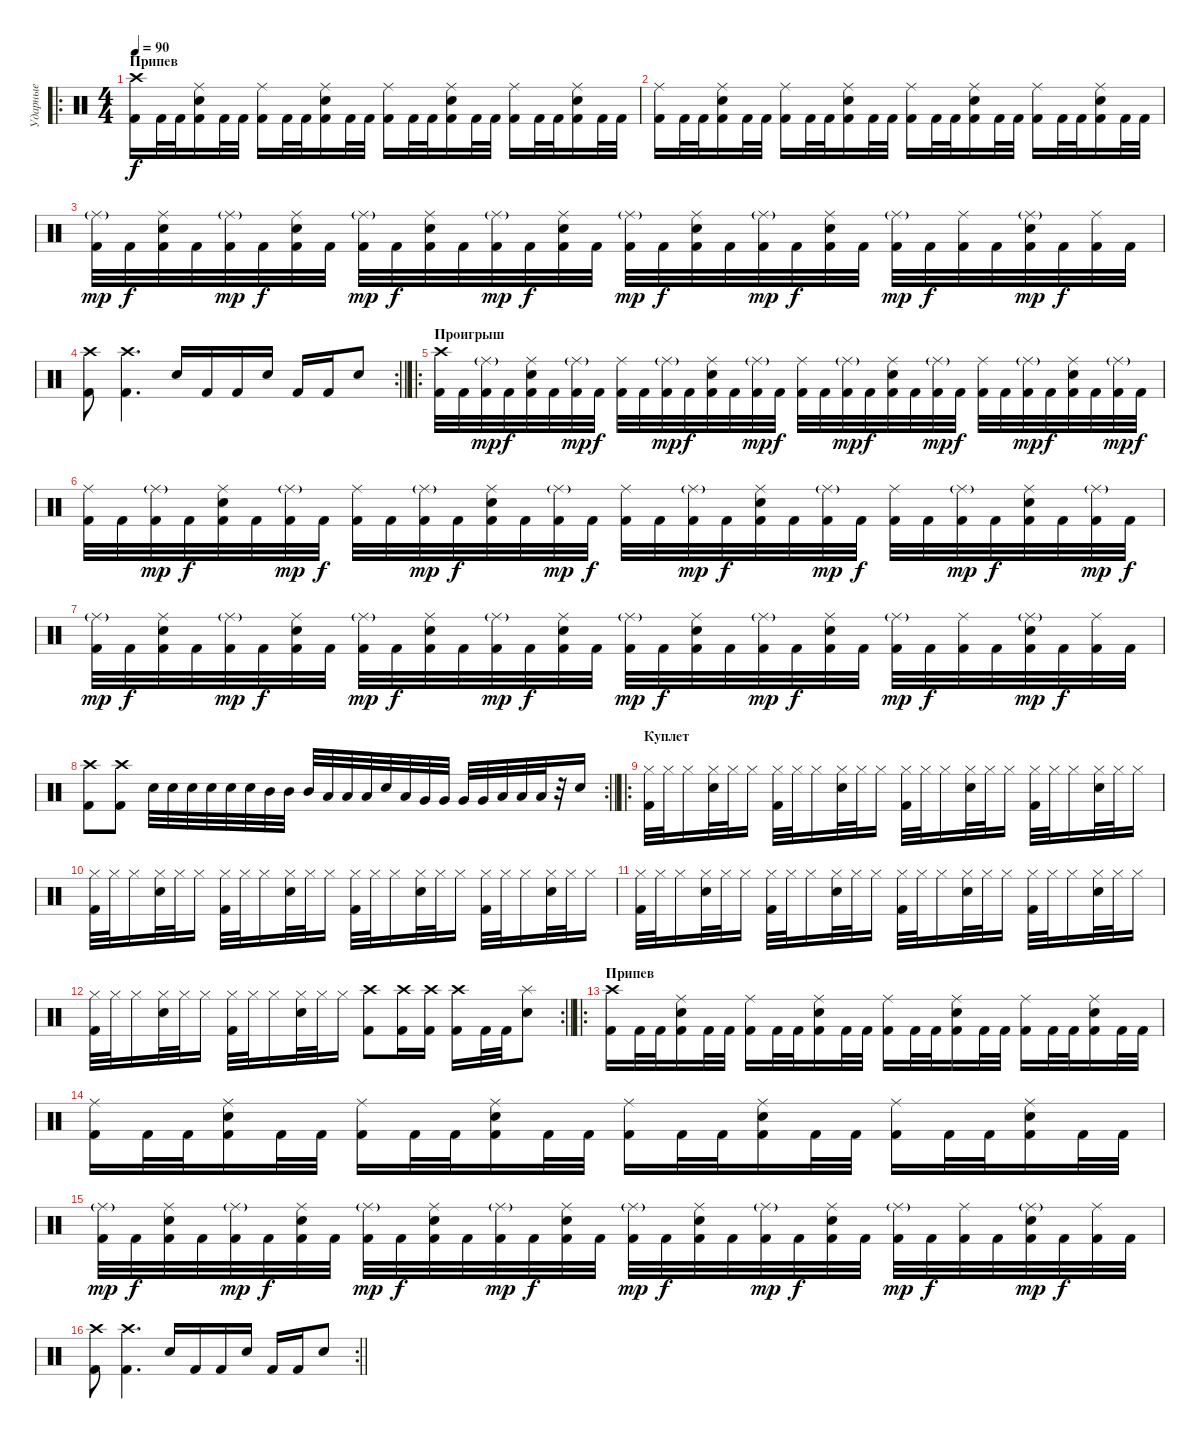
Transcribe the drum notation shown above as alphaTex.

\track ("Ударные" "Ударные") {instrument percussion}
\staff {score}
\articulation defaults
\ro
\ts (4 4)
\section ("" "Припев")
\tempo 90
\clef neutral
\ks c
("Kick (hit) 2" "Crash high (hit)").16{dy f} "Kick (hit) 2".32 "Kick (hit) 2".32 ("Kick (hit) 2" "Electric Snare (hit)" "Ride (middle)").16 "Kick (hit) 2".32 "Kick (hit) 2".32 ("Kick (hit) 2" "Ride (middle)").16 "Kick (hit) 2".32 "Kick (hit) 2".32 ("Kick (hit) 2" "Electric Snare (hit)" "Ride (middle)").16 "Kick (hit) 2".32 "Kick (hit) 2".32 ("Kick (hit) 2" "Ride (middle)").16 "Kick (hit) 2".32 "Kick (hit) 2".32 ("Kick (hit) 2" "Electric Snare (hit)" "Ride (middle)").16 "Kick (hit) 2".32 "Kick (hit) 2".32 ("Kick (hit) 2" "Ride (middle)").16 "Kick (hit) 2".32 "Kick (hit) 2".32 ("Kick (hit) 2" "Electric Snare (hit)" "Ride (middle)").16 "Kick (hit) 2".32 "Kick (hit) 2".32 |
("Kick (hit) 2" "Ride (middle)").16 "Kick (hit) 2".32 "Kick (hit) 2".32 ("Kick (hit) 2" "Electric Snare (hit)" "Ride (middle)").16 "Kick (hit) 2".32 "Kick (hit) 2".32 ("Kick (hit) 2" "Ride (middle)").16 "Kick (hit) 2".32 "Kick (hit) 2".32 ("Kick (hit) 2" "Electric Snare (hit)" "Ride (middle)").16 "Kick (hit) 2".32 "Kick (hit) 2".32 ("Kick (hit) 2" "Ride (middle)").16 "Kick (hit) 2".32 "Kick (hit) 2".32 ("Kick (hit) 2" "Electric Snare (hit)" "Ride (middle)").16 "Kick (hit) 2".32 "Kick (hit) 2".32 ("Kick (hit) 2" "Ride (middle)").16 "Kick (hit) 2".32 "Kick (hit) 2".32 ("Kick (hit) 2" "Electric Snare (hit)" "Ride (middle)").16 "Kick (hit) 2".32 "Kick (hit) 2".32 |
("Kick (hit) 2" "Ride (middle)"{g}).32{dy mp} "Kick (hit) 2".32{dy f} ("Kick (hit) 2" "Electric Snare (hit)" "Ride (middle)").32 "Kick (hit) 2".32 ("Kick (hit) 2" "Ride (middle)"{g}).32{dy mp} "Kick (hit) 2".32{dy f} ("Kick (hit) 2" "Electric Snare (hit)" "Ride (middle)").32 "Kick (hit) 2".32 ("Kick (hit) 2" "Ride (middle)"{g}).32{dy mp} "Kick (hit) 2".32{dy f} ("Kick (hit) 2" "Electric Snare (hit)" "Ride (middle)").32 "Kick (hit) 2".32 ("Kick (hit) 2" "Ride (middle)"{g}).32{dy mp} "Kick (hit) 2".32{dy f} ("Kick (hit) 2" "Electric Snare (hit)" "Ride (middle)").32 "Kick (hit) 2".32 ("Kick (hit) 2" "Ride (middle)"{g}).32{dy mp} "Kick (hit) 2".32{dy f} ("Kick (hit) 2" "Electric Snare (hit)" "Ride (middle)").32 "Kick (hit) 2".32 ("Kick (hit) 2" "Ride (middle)"{g}).32{dy mp} "Kick (hit) 2".32{dy f} ("Kick (hit) 2" "Electric Snare (hit)" "Ride (middle)").32 "Kick (hit) 2".32 ("Kick (hit) 2" "Ride (middle)"{g}).32{dy mp} "Kick (hit) 2".32{dy f} ("Kick (hit) 2" "Ride (middle)").32 "Kick (hit) 2".32 ("Kick (hit) 2" "Electric Snare (hit)" "Ride (middle)"{g}).32{dy mp} "Kick (hit) 2".32{dy f} ("Kick (hit) 2" "Ride (middle)").32 "Kick (hit) 2".32 |
\rc 2
\barLineRight lightlight
("Kick (hit) 2" "Crash high (hit)").8 ("Kick (hit) 2" "Crash high (hit)").4{d} "Electric Snare (hit)".16 "Kick (hit) 2".16 "Kick (hit) 2".16 "Electric Snare (hit)".16 "Kick (hit) 2".16 "Kick (hit) 2".16 "Electric Snare (hit)".8 |
\ro
\section ("" "Проигрыш")
("Kick (hit) 2" "Crash high (hit)").32 "Kick (hit) 2".32 ("Kick (hit) 2" "Ride (middle)"{g}).32{dy mp} "Kick (hit) 2".32{dy f} ("Kick (hit) 2" "Electric Snare (hit)" "Ride (middle)").32 "Kick (hit) 2".32 ("Kick (hit) 2" "Ride (middle)"{g}).32{dy mp} "Kick (hit) 2".32{dy f} ("Kick (hit) 2" "Ride (middle)").32 "Kick (hit) 2".32 ("Kick (hit) 2" "Ride (middle)"{g}).32{dy mp} "Kick (hit) 2".32{dy f} ("Kick (hit) 2" "Electric Snare (hit)" "Ride (middle)").32 "Kick (hit) 2".32 ("Kick (hit) 2" "Ride (middle)"{g}).32{dy mp} "Kick (hit) 2".32{dy f} ("Kick (hit) 2" "Ride (middle)").32 "Kick (hit) 2".32 ("Kick (hit) 2" "Ride (middle)"{g}).32{dy mp} "Kick (hit) 2".32{dy f} ("Kick (hit) 2" "Electric Snare (hit)" "Ride (middle)").32 "Kick (hit) 2".32 ("Kick (hit) 2" "Ride (middle)"{g}).32{dy mp} "Kick (hit) 2".32{dy f} ("Kick (hit) 2" "Ride (middle)").32 "Kick (hit) 2".32 ("Kick (hit) 2" "Ride (middle)"{g}).32{dy mp} "Kick (hit) 2".32{dy f} ("Kick (hit) 2" "Electric Snare (hit)" "Ride (middle)").32 "Kick (hit) 2".32 ("Kick (hit) 2" "Ride (middle)"{g}).32{dy mp} "Kick (hit) 2".32{dy f} |
("Kick (hit) 2" "Ride (middle)").32 "Kick (hit) 2".32 ("Kick (hit) 2" "Ride (middle)"{g}).32{dy mp} "Kick (hit) 2".32{dy f} ("Kick (hit) 2" "Electric Snare (hit)" "Ride (middle)").32 "Kick (hit) 2".32 ("Kick (hit) 2" "Ride (middle)"{g}).32{dy mp} "Kick (hit) 2".32{dy f} ("Kick (hit) 2" "Ride (middle)").32 "Kick (hit) 2".32 ("Kick (hit) 2" "Ride (middle)"{g}).32{dy mp} "Kick (hit) 2".32{dy f} ("Kick (hit) 2" "Electric Snare (hit)" "Ride (middle)").32 "Kick (hit) 2".32 ("Kick (hit) 2" "Ride (middle)"{g}).32{dy mp} "Kick (hit) 2".32{dy f} ("Kick (hit) 2" "Ride (middle)").32 "Kick (hit) 2".32 ("Kick (hit) 2" "Ride (middle)"{g}).32{dy mp} "Kick (hit) 2".32{dy f} ("Kick (hit) 2" "Electric Snare (hit)" "Ride (middle)").32 "Kick (hit) 2".32 ("Kick (hit) 2" "Ride (middle)"{g}).32{dy mp} "Kick (hit) 2".32{dy f} ("Kick (hit) 2" "Ride (middle)").32 "Kick (hit) 2".32 ("Kick (hit) 2" "Ride (middle)"{g}).32{dy mp} "Kick (hit) 2".32{dy f} ("Kick (hit) 2" "Electric Snare (hit)" "Ride (middle)").32 "Kick (hit) 2".32 ("Kick (hit) 2" "Ride (middle)"{g}).32{dy mp} "Kick (hit) 2".32{dy f} |
("Kick (hit) 2" "Ride (middle)"{g}).32{dy mp} "Kick (hit) 2".32{dy f} ("Kick (hit) 2" "Electric Snare (hit)" "Ride (middle)").32 "Kick (hit) 2".32 ("Kick (hit) 2" "Ride (middle)"{g}).32{dy mp} "Kick (hit) 2".32{dy f} ("Kick (hit) 2" "Electric Snare (hit)" "Ride (middle)").32 "Kick (hit) 2".32 ("Kick (hit) 2" "Ride (middle)"{g}).32{dy mp} "Kick (hit) 2".32{dy f} ("Kick (hit) 2" "Electric Snare (hit)" "Ride (middle)").32 "Kick (hit) 2".32 ("Kick (hit) 2" "Ride (middle)"{g}).32{dy mp} "Kick (hit) 2".32{dy f} ("Kick (hit) 2" "Electric Snare (hit)" "Ride (middle)").32 "Kick (hit) 2".32 ("Kick (hit) 2" "Ride (middle)"{g}).32{dy mp} "Kick (hit) 2".32{dy f} ("Kick (hit) 2" "Electric Snare (hit)" "Ride (middle)").32 "Kick (hit) 2".32 ("Kick (hit) 2" "Ride (middle)"{g}).32{dy mp} "Kick (hit) 2".32{dy f} ("Kick (hit) 2" "Electric Snare (hit)" "Ride (middle)").32 "Kick (hit) 2".32 ("Kick (hit) 2" "Ride (middle)"{g}).32{dy mp} "Kick (hit) 2".32{dy f} ("Kick (hit) 2" "Ride (middle)").32 "Kick (hit) 2".32 ("Kick (hit) 2" "Electric Snare (hit)" "Ride (middle)"{g}).32{dy mp} "Kick (hit) 2".32{dy f} ("Kick (hit) 2" "Ride (middle)").32 "Kick (hit) 2".32 |
\rc 2
\barLineRight lightlight
("Kick (hit) 2" "Crash high (hit)").8 ("Kick (hit) 2" "Crash high (hit)").8 "Electric Snare (hit)".32 "Electric Snare (hit)".32 "Electric Snare (hit)".32 "Electric Snare (hit)".32 "Electric Snare (hit)".32 "Electric Snare (hit)".32 "Mid Tom (hit)".32 "Mid Tom (hit)".32 "Mid Tom (hit)".32 "Low Tom (hit)".32 "Low Tom (hit)".32 "Low Tom (hit)".32 "Electric Snare (hit)".32 "Low Tom (hit)".32 "Very Low Tom (hit)".32 "Very Low Tom (hit)".32 "Very Low Tom (hit)".32 "Very Low Tom (hit)".32 "Low Floor Tom (hit)".32 "Low Floor Tom (hit)".32 "Low Floor Tom (hit)".32 r.32 "Electric Snare (hit)".16 |
\ro
\section ("" "Куплет")
("Hi-Hat (closed)" "Kick (hit) 2").32 "Hi-Hat (closed)".32 "Hi-Hat (closed)".16 ("Hi-Hat (closed)" "Electric Snare (hit)").32 "Hi-Hat (closed)".32 "Hi-Hat (closed)".16 ("Hi-Hat (closed)" "Kick (hit) 2").32 "Hi-Hat (closed)".32 "Hi-Hat (closed)".16 ("Hi-Hat (closed)" "Electric Snare (hit)").32 "Hi-Hat (closed)".32 "Hi-Hat (closed)".16 ("Hi-Hat (closed)" "Kick (hit) 2").32 "Hi-Hat (closed)".32 "Hi-Hat (closed)".16 ("Hi-Hat (closed)" "Electric Snare (hit)").32 "Hi-Hat (closed)".32 "Hi-Hat (closed)".16 ("Hi-Hat (closed)" "Kick (hit) 2").32 "Hi-Hat (closed)".32 "Hi-Hat (closed)".16 ("Hi-Hat (closed)" "Electric Snare (hit)").32 "Hi-Hat (closed)".32 "Hi-Hat (closed)".16 |
("Hi-Hat (closed)" "Kick (hit) 2").32 "Hi-Hat (closed)".32 "Hi-Hat (closed)".16 ("Hi-Hat (closed)" "Electric Snare (hit)").32 "Hi-Hat (closed)".32 "Hi-Hat (closed)".16 ("Hi-Hat (closed)" "Kick (hit) 2").32 "Hi-Hat (closed)".32 "Hi-Hat (closed)".16 ("Hi-Hat (closed)" "Electric Snare (hit)").32 "Hi-Hat (closed)".32 "Hi-Hat (closed)".16 ("Hi-Hat (closed)" "Kick (hit) 2").32 "Hi-Hat (closed)".32 "Hi-Hat (closed)".16 ("Hi-Hat (closed)" "Electric Snare (hit)").32 "Hi-Hat (closed)".32 "Hi-Hat (closed)".16 ("Hi-Hat (closed)" "Kick (hit) 2").32 "Hi-Hat (closed)".32 "Hi-Hat (closed)".16 ("Hi-Hat (closed)" "Electric Snare (hit)").32 "Hi-Hat (closed)".32 "Hi-Hat (closed)".16 |
("Hi-Hat (closed)" "Kick (hit) 2").32 "Hi-Hat (closed)".32 "Hi-Hat (closed)".16 ("Hi-Hat (closed)" "Electric Snare (hit)").32 "Hi-Hat (closed)".32 "Hi-Hat (closed)".16 ("Hi-Hat (closed)" "Kick (hit) 2").32 "Hi-Hat (closed)".32 "Hi-Hat (closed)".16 ("Hi-Hat (closed)" "Electric Snare (hit)").32 "Hi-Hat (closed)".32 "Hi-Hat (closed)".16 ("Hi-Hat (closed)" "Kick (hit) 2").32 "Hi-Hat (closed)".32 "Hi-Hat (closed)".16 ("Hi-Hat (closed)" "Electric Snare (hit)").32 "Hi-Hat (closed)".32 "Hi-Hat (closed)".16 ("Hi-Hat (closed)" "Kick (hit) 2").32 "Hi-Hat (closed)".32 "Hi-Hat (closed)".16 ("Hi-Hat (closed)" "Electric Snare (hit)").32 "Hi-Hat (closed)".32 "Hi-Hat (closed)".16 |
\rc 2
\barLineRight lightlight
("Hi-Hat (closed)" "Kick (hit) 2").32 "Hi-Hat (closed)".32 "Hi-Hat (closed)".16 ("Hi-Hat (closed)" "Electric Snare (hit)").32 "Hi-Hat (closed)".32 "Hi-Hat (closed)".16 ("Hi-Hat (closed)" "Kick (hit) 2").32 "Hi-Hat (closed)".32 "Hi-Hat (closed)".16 ("Hi-Hat (closed)" "Electric Snare (hit)").32 "Hi-Hat (closed)".32 "Hi-Hat (closed)".16 ("Kick (hit) 2" "Crash high (hit)").8 ("Kick (hit) 2" "Crash high (hit)").16 ("Kick (hit) 2" "Crash high (hit)").16 ("Kick (hit) 2" "Crash high (hit)").16 "Kick (hit) 2".32 "Kick (hit) 2".32 ("Electric Snare (hit)" "Splash (hit)").8 |
\ro
\section ("" "Припев")
("Kick (hit) 2" "Crash high (hit)").16 "Kick (hit) 2".32 "Kick (hit) 2".32 ("Kick (hit) 2" "Electric Snare (hit)" "Ride (middle)").16 "Kick (hit) 2".32 "Kick (hit) 2".32 ("Kick (hit) 2" "Ride (middle)").16 "Kick (hit) 2".32 "Kick (hit) 2".32 ("Kick (hit) 2" "Electric Snare (hit)" "Ride (middle)").16 "Kick (hit) 2".32 "Kick (hit) 2".32 ("Kick (hit) 2" "Ride (middle)").16 "Kick (hit) 2".32 "Kick (hit) 2".32 ("Kick (hit) 2" "Electric Snare (hit)" "Ride (middle)").16 "Kick (hit) 2".32 "Kick (hit) 2".32 ("Kick (hit) 2" "Ride (middle)").16 "Kick (hit) 2".32 "Kick (hit) 2".32 ("Kick (hit) 2" "Electric Snare (hit)" "Ride (middle)").16 "Kick (hit) 2".32 "Kick (hit) 2".32 |
("Kick (hit) 2" "Ride (middle)").16 "Kick (hit) 2".32 "Kick (hit) 2".32 ("Kick (hit) 2" "Electric Snare (hit)" "Ride (middle)").16 "Kick (hit) 2".32 "Kick (hit) 2".32 ("Kick (hit) 2" "Ride (middle)").16 "Kick (hit) 2".32 "Kick (hit) 2".32 ("Kick (hit) 2" "Electric Snare (hit)" "Ride (middle)").16 "Kick (hit) 2".32 "Kick (hit) 2".32 ("Kick (hit) 2" "Ride (middle)").16 "Kick (hit) 2".32 "Kick (hit) 2".32 ("Kick (hit) 2" "Electric Snare (hit)" "Ride (middle)").16 "Kick (hit) 2".32 "Kick (hit) 2".32 ("Kick (hit) 2" "Ride (middle)").16 "Kick (hit) 2".32 "Kick (hit) 2".32 ("Kick (hit) 2" "Electric Snare (hit)" "Ride (middle)").16 "Kick (hit) 2".32 "Kick (hit) 2".32 |
("Kick (hit) 2" "Ride (middle)"{g}).32{dy mp} "Kick (hit) 2".32{dy f} ("Kick (hit) 2" "Electric Snare (hit)" "Ride (middle)").32 "Kick (hit) 2".32 ("Kick (hit) 2" "Ride (middle)"{g}).32{dy mp} "Kick (hit) 2".32{dy f} ("Kick (hit) 2" "Electric Snare (hit)" "Ride (middle)").32 "Kick (hit) 2".32 ("Kick (hit) 2" "Ride (middle)"{g}).32{dy mp} "Kick (hit) 2".32{dy f} ("Kick (hit) 2" "Electric Snare (hit)" "Ride (middle)").32 "Kick (hit) 2".32 ("Kick (hit) 2" "Ride (middle)"{g}).32{dy mp} "Kick (hit) 2".32{dy f} ("Kick (hit) 2" "Electric Snare (hit)" "Ride (middle)").32 "Kick (hit) 2".32 ("Kick (hit) 2" "Ride (middle)"{g}).32{dy mp} "Kick (hit) 2".32{dy f} ("Kick (hit) 2" "Electric Snare (hit)" "Ride (middle)").32 "Kick (hit) 2".32 ("Kick (hit) 2" "Ride (middle)"{g}).32{dy mp} "Kick (hit) 2".32{dy f} ("Kick (hit) 2" "Electric Snare (hit)" "Ride (middle)").32 "Kick (hit) 2".32 ("Kick (hit) 2" "Ride (middle)"{g}).32{dy mp} "Kick (hit) 2".32{dy f} ("Kick (hit) 2" "Ride (middle)").32 "Kick (hit) 2".32 ("Kick (hit) 2" "Electric Snare (hit)" "Ride (middle)"{g}).32{dy mp} "Kick (hit) 2".32{dy f} ("Kick (hit) 2" "Ride (middle)").32 "Kick (hit) 2".32 |
\rc 2
\barLineRight lightlight
("Kick (hit) 2" "Crash high (hit)").8 ("Kick (hit) 2" "Crash high (hit)").4{d} "Electric Snare (hit)".16 "Kick (hit) 2".16 "Kick (hit) 2".16 "Electric Snare (hit)".16 "Kick (hit) 2".16 "Kick (hit) 2".16 "Electric Snare (hit)".8
